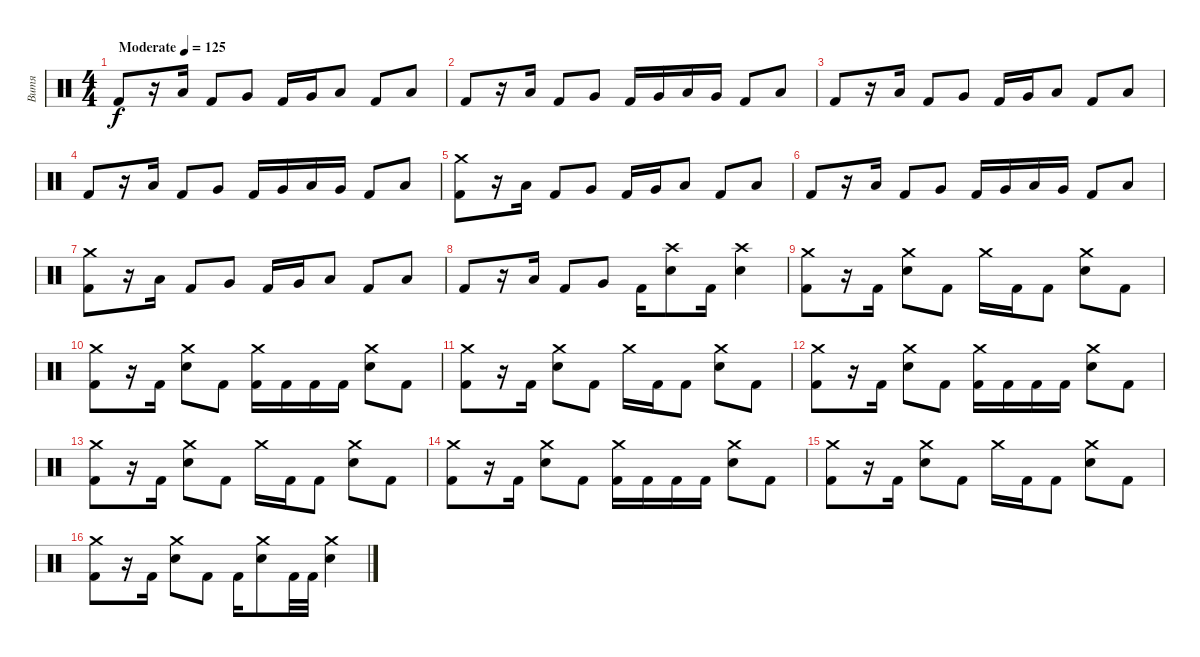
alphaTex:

\track ("Витя" "Витя") {instrument percussion}
\staff {score}
\articulation defaults
\ts (4 4)
\tempo (125 "Moderate")
\clef neutral
\ks c "Kick (hit) 2".8{dy f}
r.16 "Low Floor Tom (hit)".16 "Kick (hit) 2".8 "Very Low Tom (hit)".8 "Kick (hit) 2".16 "Very Low Tom (hit)".16 "Low Floor Tom (hit)".8 "Kick (hit) 2".8 "Low Floor Tom (hit)".8 |
"Kick (hit) 2".8 r.16 "Low Floor Tom (hit)".16 "Kick (hit) 2".8 "Very Low Tom (hit)".8 "Kick (hit) 2".16 "Very Low Tom (hit)".16 "Low Floor Tom (hit)".16 "Very Low Tom (hit)".16 "Kick (hit) 2".8 "Low Floor Tom (hit)".8 |
"Kick (hit) 2".8 r.16 "Low Floor Tom (hit)".16 "Kick (hit) 2".8 "Very Low Tom (hit)".8 "Kick (hit) 2".16 "Very Low Tom (hit)".16 "Low Floor Tom (hit)".8 "Kick (hit) 2".8 "Low Floor Tom (hit)".8 |
"Kick (hit) 2".8 r.16 "Low Floor Tom (hit)".16 "Kick (hit) 2".8 "Very Low Tom (hit)".8 "Kick (hit) 2".16 "Very Low Tom (hit)".16 "Low Floor Tom (hit)".16 "Very Low Tom (hit)".16 "Kick (hit) 2".8 "Low Floor Tom (hit)".8 |
("Crash medium (hit)" "Kick (hit) 2").8 r.16 "Low Floor Tom (hit)".16 "Kick (hit) 2".8 "Very Low Tom (hit)".8 "Kick (hit) 2".16 "Very Low Tom (hit)".16 "Low Floor Tom (hit)".8 "Kick (hit) 2".8 "Low Floor Tom (hit)".8 |
"Kick (hit) 2".8 r.16 "Low Floor Tom (hit)".16 "Kick (hit) 2".8 "Very Low Tom (hit)".8 "Kick (hit) 2".16 "Very Low Tom (hit)".16 "Low Floor Tom (hit)".16 "Very Low Tom (hit)".16 "Kick (hit) 2".8 "Low Floor Tom (hit)".8 |
("Crash medium (hit)" "Kick (hit) 2").8 r.16 "Low Floor Tom (hit)".16 "Kick (hit) 2".8 "Very Low Tom (hit)".8 "Kick (hit) 2".16 "Very Low Tom (hit)".16 "Low Floor Tom (hit)".8 "Kick (hit) 2".8 "Low Floor Tom (hit)".8 |
"Kick (hit) 2".8 r.16 "Low Floor Tom (hit)".16 "Kick (hit) 2".8 "Very Low Tom (hit)".8 "Kick (hit) 2".16 ("Crash high (hit)" "Electric Snare (hit)").8 "Kick (hit) 2".16 ("Crash high (hit)" "Electric Snare (hit)").4 |
("Crash medium (hit)" "Kick (hit) 2").8 r.16 "Kick (hit) 2".16 ("Crash medium (hit)" "Electric Snare (hit)").8 "Kick (hit) 2".8 "Crash medium (hit)".16 "Kick (hit) 2".16 "Kick (hit) 2".8 ("Crash medium (hit)" "Electric Snare (hit)").8 "Kick (hit) 2".8 |
("Crash medium (hit)" "Kick (hit) 2").8 r.16 "Kick (hit) 2".16 ("Crash medium (hit)" "Electric Snare (hit)").8 "Kick (hit) 2".8 ("Crash medium (hit)" "Kick (hit) 2").16 "Kick (hit) 2".16 "Kick (hit) 2".16 "Kick (hit) 2".16 ("Crash medium (hit)" "Electric Snare (hit)").8 "Kick (hit) 2".8 |
("Crash medium (hit)" "Kick (hit) 2").8 r.16 "Kick (hit) 2".16 ("Crash medium (hit)" "Electric Snare (hit)").8 "Kick (hit) 2".8 "Crash medium (hit)".16 "Kick (hit) 2".16 "Kick (hit) 2".8 ("Crash medium (hit)" "Electric Snare (hit)").8 "Kick (hit) 2".8 |
("Crash medium (hit)" "Kick (hit) 2").8 r.16 "Kick (hit) 2".16 ("Crash medium (hit)" "Electric Snare (hit)").8 "Kick (hit) 2".8 ("Crash medium (hit)" "Kick (hit) 2").16 "Kick (hit) 2".16 "Kick (hit) 2".16 "Kick (hit) 2".16 ("Crash medium (hit)" "Electric Snare (hit)").8 "Kick (hit) 2".8 |
("Crash medium (hit)" "Kick (hit) 2").8 r.16 "Kick (hit) 2".16 ("Crash medium (hit)" "Electric Snare (hit)").8 "Kick (hit) 2".8 "Crash medium (hit)".16 "Kick (hit) 2".16 "Kick (hit) 2".8 ("Crash medium (hit)" "Electric Snare (hit)").8 "Kick (hit) 2".8 |
("Crash medium (hit)" "Kick (hit) 2").8 r.16 "Kick (hit) 2".16 ("Crash medium (hit)" "Electric Snare (hit)").8 "Kick (hit) 2".8 ("Crash medium (hit)" "Kick (hit) 2").16 "Kick (hit) 2".16 "Kick (hit) 2".16 "Kick (hit) 2".16 ("Crash medium (hit)" "Electric Snare (hit)").8 "Kick (hit) 2".8 |
("Crash medium (hit)" "Kick (hit) 2").8 r.16 "Kick (hit) 2".16 ("Crash medium (hit)" "Electric Snare (hit)").8 "Kick (hit) 2".8 "Crash medium (hit)".16 "Kick (hit) 2".16 "Kick (hit) 2".8 ("Crash medium (hit)" "Electric Snare (hit)").8 "Kick (hit) 2".8 |
("Crash medium (hit)" "Kick (hit) 2").8 r.16 "Kick (hit) 2".16 ("Crash medium (hit)" "Electric Snare (hit)").8 "Kick (hit) 2".8 "Kick (hit) 2".16 ("Crash medium (hit)" "Electric Snare (hit)").8 "Kick (hit) 2".32 "Kick (hit) 2".32 ("Crash medium (hit)" "Electric Snare (hit)").4
